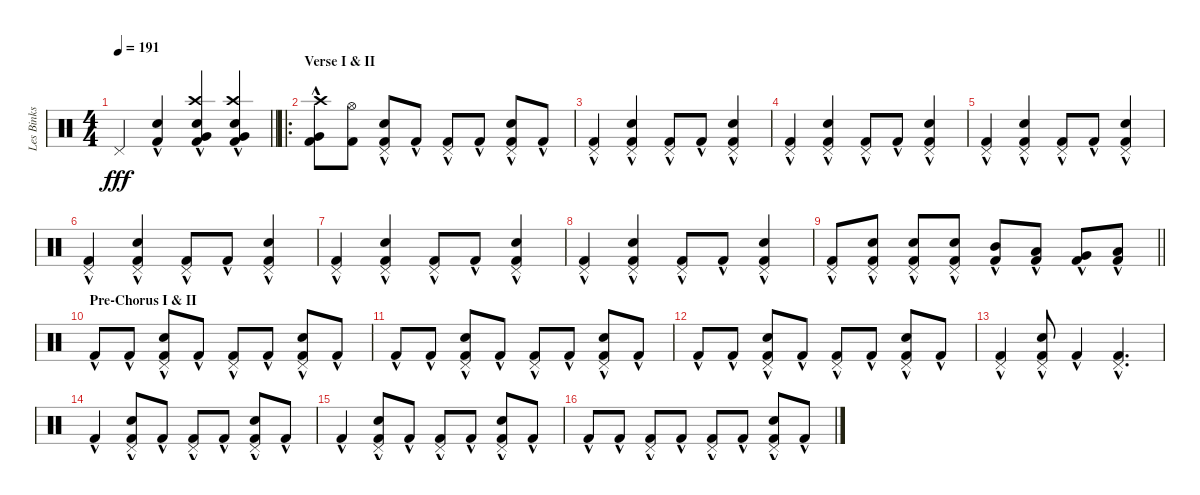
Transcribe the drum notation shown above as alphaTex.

\track ("Les Binks" "Les Binks") {instrument percussion}
\staff {score}
\articulation defaults
\ts (4 4)
\tempo 191
\clef neutral
\barLineRight lightlight
\ks c "Pedal Hi-Hat (hit)".4{dy fff}
("Snare (hit) 2" "Kick (hit) 2"{hac}).4 ("Crash high (hit)" "Snare (hit) 2" "Very Low Tom (hit)" "Kick (hit) 2"{hac}).4 ("Crash high (hit)" "Snare (hit) 2" "Very Low Tom (hit)" "Kick (hit) 2"{hac}).4 |
\ro
\section ("" "Verse I & II")
("Crash high (hit)"{hac} "Very Low Tom (hit)" "Kick (hit) 2"{hac}).8 ("Hi-Hat (open)" "Kick (hit) 2").8 ("Pedal Hi-Hat (hit)" "Snare (hit) 2" "Kick (hit) 2"{hac}).8 "Kick (hit) 2"{hac}.8 ("Pedal Hi-Hat (hit)" "Kick (hit) 2"{hac}).8 "Kick (hit) 2"{hac}.8 ("Pedal Hi-Hat (hit)" "Snare (hit) 2" "Kick (hit) 2"{hac}).8 "Kick (hit) 2"{hac}.8 |
("Pedal Hi-Hat (hit)" "Kick (hit) 2"{hac}).4 ("Pedal Hi-Hat (hit)" "Snare (hit) 2" "Kick (hit) 2"{hac}).4 ("Pedal Hi-Hat (hit)" "Kick (hit) 2"{hac}).8 "Kick (hit) 2"{hac}.8 ("Pedal Hi-Hat (hit)" "Snare (hit) 2" "Kick (hit) 2"{hac}).4 |
("Pedal Hi-Hat (hit)" "Kick (hit) 2"{hac}).4 ("Pedal Hi-Hat (hit)" "Snare (hit) 2" "Kick (hit) 2"{hac}).4 ("Pedal Hi-Hat (hit)" "Kick (hit) 2"{hac}).8 "Kick (hit) 2"{hac}.8 ("Pedal Hi-Hat (hit)" "Snare (hit) 2" "Kick (hit) 2"{hac}).4 |
("Pedal Hi-Hat (hit)" "Kick (hit) 2"{hac}).4 ("Pedal Hi-Hat (hit)" "Snare (hit) 2" "Kick (hit) 2"{hac}).4 ("Pedal Hi-Hat (hit)" "Kick (hit) 2"{hac}).8 "Kick (hit) 2"{hac}.8 ("Pedal Hi-Hat (hit)" "Snare (hit) 2" "Kick (hit) 2"{hac}).4 |
("Pedal Hi-Hat (hit)" "Kick (hit) 2"{hac}).4 ("Pedal Hi-Hat (hit)" "Snare (hit) 2" "Kick (hit) 2"{hac}).4 ("Pedal Hi-Hat (hit)" "Kick (hit) 2"{hac}).8 "Kick (hit) 2"{hac}.8 ("Pedal Hi-Hat (hit)" "Snare (hit) 2" "Kick (hit) 2"{hac}).4 |
("Pedal Hi-Hat (hit)" "Kick (hit) 2"{hac}).4 ("Pedal Hi-Hat (hit)" "Snare (hit) 2" "Kick (hit) 2"{hac}).4 ("Pedal Hi-Hat (hit)" "Kick (hit) 2"{hac}).8 "Kick (hit) 2"{hac}.8 ("Pedal Hi-Hat (hit)" "Snare (hit) 2" "Kick (hit) 2"{hac}).4 |
("Pedal Hi-Hat (hit)" "Kick (hit) 2"{hac}).4 ("Pedal Hi-Hat (hit)" "Snare (hit) 2" "Kick (hit) 2"{hac}).4 ("Pedal Hi-Hat (hit)" "Kick (hit) 2"{hac}).8 "Kick (hit) 2"{hac}.8 ("Pedal Hi-Hat (hit)" "Snare (hit) 2" "Kick (hit) 2"{hac}).4 |
\barLineRight lightlight
("Pedal Hi-Hat (hit)" "Kick (hit) 2"{hac}).8 ("Pedal Hi-Hat (hit)" "Snare (hit) 2" "Kick (hit) 2"{hac}).8 ("Pedal Hi-Hat (hit)" "Snare (hit) 2" "Kick (hit) 2"{hac}).8 ("Pedal Hi-Hat (hit)" "Snare (hit) 2" "Kick (hit) 2"{hac}).8 ("Mid Tom (hit)" "Kick (hit) 2"{hac}).8 ("Low Tom (hit)" "Kick (hit) 2"{hac}).8 ("Very Low Tom (hit)" "Kick (hit) 2"{hac}).8 ("Low Floor Tom (hit)" "Kick (hit) 2"{hac}).8 |
\section ("" "Pre-Chorus I & II")
"Kick (hit) 2"{hac}.8 "Kick (hit) 2"{hac}.8 ("Pedal Hi-Hat (hit)" "Snare (hit) 2" "Kick (hit) 2"{hac}).8 "Kick (hit) 2"{hac}.8 ("Pedal Hi-Hat (hit)" "Kick (hit) 2"{hac}).8 "Kick (hit) 2"{hac}.8 ("Pedal Hi-Hat (hit)" "Snare (hit) 2" "Kick (hit) 2"{hac}).8 "Kick (hit) 2"{hac}.8 |
"Kick (hit) 2"{hac}.8 "Kick (hit) 2"{hac}.8 ("Pedal Hi-Hat (hit)" "Snare (hit) 2" "Kick (hit) 2"{hac}).8 "Kick (hit) 2"{hac}.8 ("Pedal Hi-Hat (hit)" "Kick (hit) 2"{hac}).8 "Kick (hit) 2"{hac}.8 ("Pedal Hi-Hat (hit)" "Snare (hit) 2" "Kick (hit) 2"{hac}).8 "Kick (hit) 2"{hac}.8 |
"Kick (hit) 2"{hac}.8 "Kick (hit) 2"{hac}.8 ("Pedal Hi-Hat (hit)" "Snare (hit) 2" "Kick (hit) 2"{hac}).8 "Kick (hit) 2"{hac}.8 ("Pedal Hi-Hat (hit)" "Kick (hit) 2"{hac}).8 "Kick (hit) 2"{hac}.8 ("Pedal Hi-Hat (hit)" "Snare (hit) 2" "Kick (hit) 2"{hac}).8 "Kick (hit) 2"{hac}.8 |
("Pedal Hi-Hat (hit)" "Kick (hit) 2"{hac}).4 ("Pedal Hi-Hat (hit)" "Snare (hit) 2" "Kick (hit) 2"{hac}).8 "Kick (hit) 2"{hac}.4 ("Pedal Hi-Hat (hit)" "Kick (hit) 2"{hac}).4{d} |
"Kick (hit) 2"{hac}.4 ("Pedal Hi-Hat (hit)" "Snare (hit) 2" "Kick (hit) 2"{hac}).8 "Kick (hit) 2"{hac}.8 ("Pedal Hi-Hat (hit)" "Kick (hit) 2"{hac}).8 "Kick (hit) 2"{hac}.8 ("Pedal Hi-Hat (hit)" "Snare (hit) 2" "Kick (hit) 2"{hac}).8 "Kick (hit) 2"{hac}.8 |
"Kick (hit) 2"{hac}.4 ("Pedal Hi-Hat (hit)" "Snare (hit) 2" "Kick (hit) 2"{hac}).8 "Kick (hit) 2"{hac}.8 ("Pedal Hi-Hat (hit)" "Kick (hit) 2"{hac}).8 "Kick (hit) 2"{hac}.8 ("Pedal Hi-Hat (hit)" "Snare (hit) 2" "Kick (hit) 2"{hac}).8 "Kick (hit) 2"{hac}.8 |
"Kick (hit) 2"{hac}.8 "Kick (hit) 2"{hac}.8 ("Pedal Hi-Hat (hit)" "Kick (hit) 2"{hac}).8 "Kick (hit) 2"{hac}.8 ("Pedal Hi-Hat (hit)" "Kick (hit) 2"{hac}).8 "Kick (hit) 2"{hac}.8 ("Pedal Hi-Hat (hit)" "Snare (hit) 2" "Kick (hit) 2"{hac}).8 "Kick (hit) 2"{hac}.8
